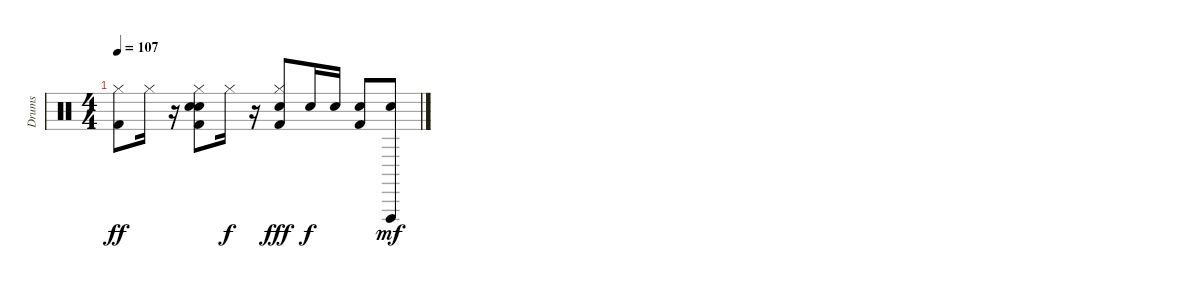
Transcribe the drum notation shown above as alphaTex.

\track ("Drums" "Drums") {instrument percussion}
\staff {score}
\articulation defaults
\ts (4 4)
\tempo 107
\clef neutral
\ks c
("Kick (hit) 2" "Hi-Hat (closed)").8{dy ff volume 4} "Hi-Hat (closed)".16{volume 3} r.16 ("Kick (hit) 2" "Electric Snare (hit)" "Electric Snare (hit)" "Hi-Hat (closed)").8{volume 3} "Hi-Hat (closed)".16{dy f volume 2} r.16 ("Kick (hit) 2" "Electric Snare (hit)" "Hi-Hat (closed)").8{dy fff volume 2} "Electric Snare (hit)".16{dy f volume 2} "Electric Snare (hit)".16{volume 1} ("Kick (hit) 2" "Electric Snare (hit)").8{volume 1} ("Electric Snare (hit)" "Vibraslap (hit)").8{dy mf volume 0}
